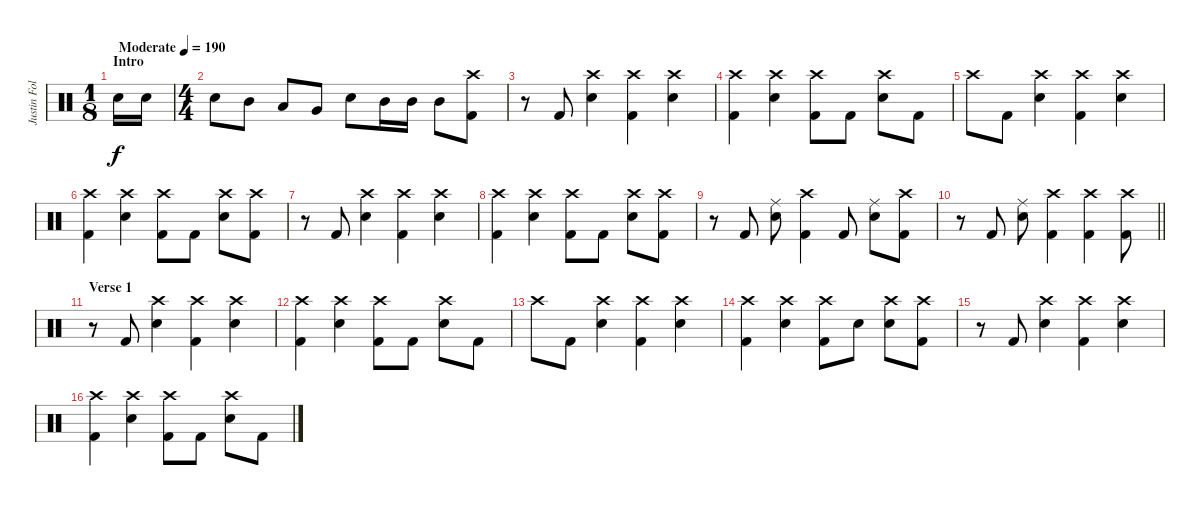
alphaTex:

\track ("Justin Foley" "Justin Fol") {instrument percussion}
\staff {score}
\articulation defaults
\ts (1 8)
\section ("" "Intro")
\tempo (190 "Moderate")
\clef neutral
\ks c "Electric Snare (hit)".16{dy f} "Electric Snare (hit)".16
|
\ts (4 4)
"Electric Snare (hit)".8 "Mid Tom (hit)".8 "Low Tom (hit)".8 "Very Low Tom (hit)".8 "Electric Snare (hit)".8 "Mid Tom (hit)".16 "Mid Tom (hit)".16 "Mid Tom (hit)".8 ("Crash high (hit)" "Kick (hit) 2").8 |
r.8 "Kick (hit) 2".8 ("Crash high (hit)" "Electric Snare (hit)").4 ("Crash high (hit)" "Kick (hit) 2").4 ("Crash high (hit)" "Electric Snare (hit)").4 |
("Crash high (hit)" "Kick (hit) 2").4 ("Crash high (hit)" "Electric Snare (hit)").4 ("Crash high (hit)" "Kick (hit) 2").8 "Kick (hit) 2".8 ("Crash high (hit)" "Electric Snare (hit)").8 "Kick (hit) 2".8 |
"Crash high (hit)".8 "Kick (hit) 2".8 ("Crash high (hit)" "Electric Snare (hit)").4 ("Crash high (hit)" "Kick (hit) 2").4 ("Crash high (hit)" "Electric Snare (hit)").4 |
("Crash high (hit)" "Kick (hit) 2").4 ("Crash high (hit)" "Electric Snare (hit)").4 ("Crash high (hit)" "Kick (hit) 2").8 "Kick (hit) 2".8 ("Crash high (hit)" "Electric Snare (hit)").8 ("Crash high (hit)" "Kick (hit) 2").8 |
r.8 "Kick (hit) 2".8 ("Crash high (hit)" "Electric Snare (hit)").4 ("Crash high (hit)" "Kick (hit) 2").4 ("Crash high (hit)" "Electric Snare (hit)").4 |
("Crash high (hit)" "Kick (hit) 2").4 ("Crash high (hit)" "Electric Snare (hit)").4 ("Crash high (hit)" "Kick (hit) 2").8 "Kick (hit) 2".8 ("Crash high (hit)" "Electric Snare (hit)").8 ("Crash high (hit)" "Kick (hit) 2").8 |
r.8 "Kick (hit) 2".8 ("Ride (middle)" "Electric Snare (hit)").8 ("Crash high (hit)" "Kick (hit) 2").4 "Kick (hit) 2".8 ("Ride (middle)" "Electric Snare (hit)").8 ("Crash high (hit)" "Kick (hit) 2").8 |
\barLineRight lightlight
r.8 "Kick (hit) 2".8 ("Ride (middle)" "Electric Snare (hit)").8 ("Crash high (hit)" "Kick (hit) 2").4 ("Crash high (hit)" "Kick (hit) 2").4 ("Crash high (hit)" "Kick (hit) 2").8 |
\section ("" "Verse 1")
r.8 "Kick (hit) 2".8 ("Crash high (hit)" "Electric Snare (hit)").4 ("Crash high (hit)" "Kick (hit) 2").4 ("Crash high (hit)" "Electric Snare (hit)").4 |
("Crash high (hit)" "Kick (hit) 2").4 ("Crash high (hit)" "Electric Snare (hit)").4 ("Crash high (hit)" "Kick (hit) 2").8 "Kick (hit) 2".8 ("Crash high (hit)" "Electric Snare (hit)").8 "Kick (hit) 2".8 |
"Crash high (hit)".8 "Kick (hit) 2".8 ("Crash high (hit)" "Electric Snare (hit)").4 ("Crash high (hit)" "Kick (hit) 2").4 ("Crash high (hit)" "Electric Snare (hit)").4 |
("Crash high (hit)" "Kick (hit) 2").4 ("Crash high (hit)" "Electric Snare (hit)").4 ("Crash high (hit)" "Kick (hit) 2").8 "Electric Snare (hit)".8 ("Crash high (hit)" "Electric Snare (hit)").8 ("Crash high (hit)" "Kick (hit) 2").8 |
r.8 "Kick (hit) 2".8 ("Crash high (hit)" "Electric Snare (hit)").4 ("Crash high (hit)" "Kick (hit) 2").4 ("Crash high (hit)" "Electric Snare (hit)").4 |
("Crash high (hit)" "Kick (hit) 2").4 ("Crash high (hit)" "Electric Snare (hit)").4 ("Crash high (hit)" "Kick (hit) 2").8 "Kick (hit) 2".8 ("Crash high (hit)" "Electric Snare (hit)").8 "Kick (hit) 2".8
